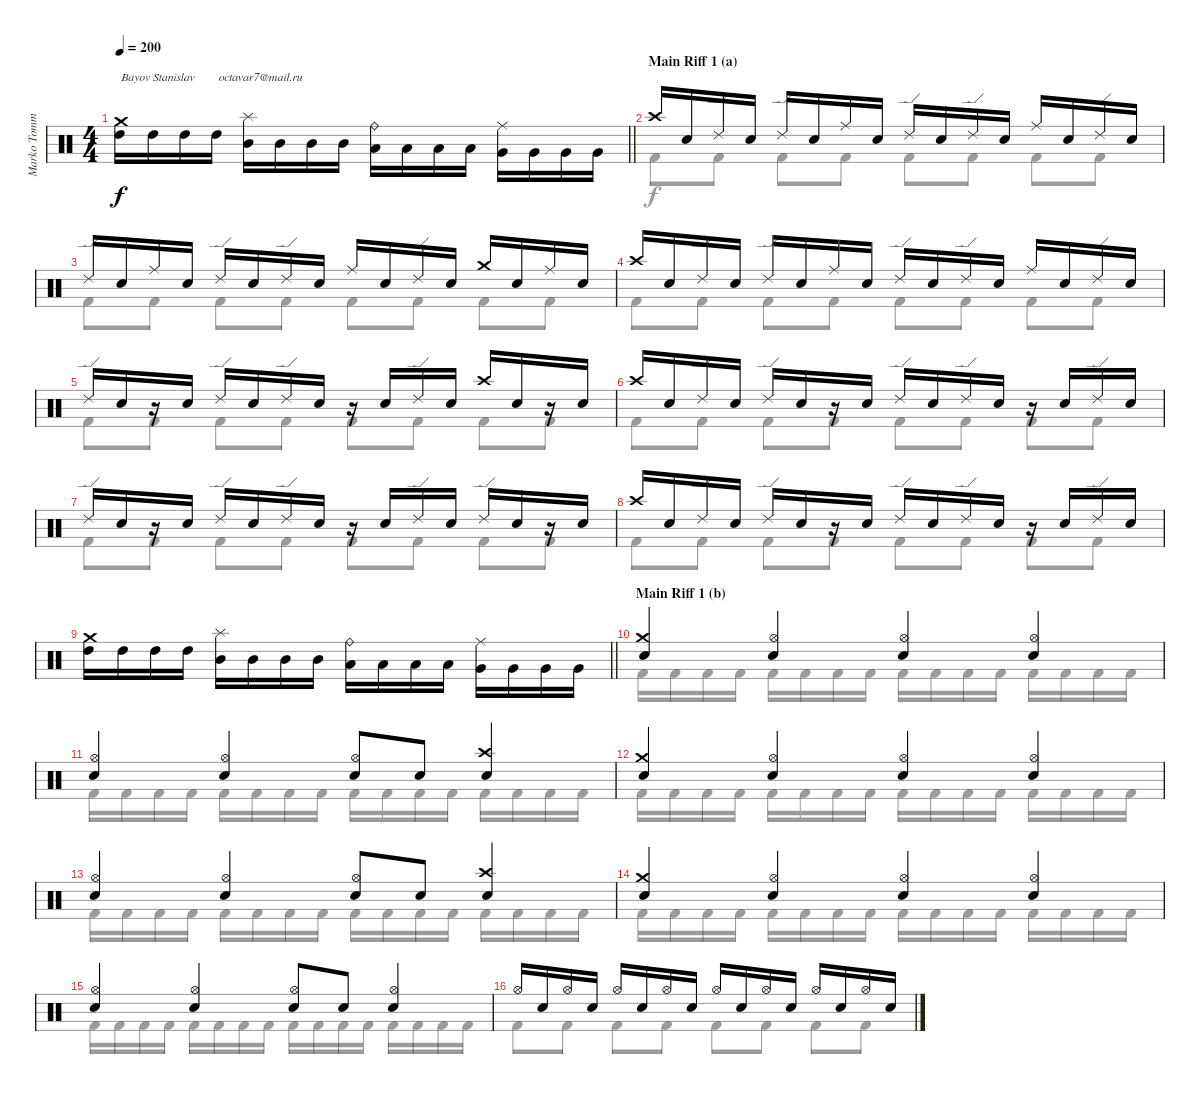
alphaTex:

\track ("Marko Tommila (drums)" "Marko Tomm") {instrument percussion}
\staff {score}
\articulation defaults
\voice
\ts (4 4)
\tempo 200
\clef neutral
\barLineRight lightlight
\ks c
("Crash medium (hit)" "High Tom (hit)").16{txt "Bayov Stanislav        octavar7@mail.ru" dy f} "High Tom (hit)".16 "High Tom (hit)".16 "High Tom (hit)".16 ("Splash (hit)" "Mid Tom (hit)").16 "Mid Tom (hit)".16 "Mid Tom (hit)".16 "Mid Tom (hit)".16 ("Ride (bell)" "Low Tom (hit)").16 "Low Tom (hit)".16 "Low Tom (hit)".16 "Low Tom (hit)".16 ("Ride (middle)" "Very Low Tom (hit)").16 "Very Low Tom (hit)".16 "Very Low Tom (hit)".16 "Very Low Tom (hit)".16 |
\section ("" "Main Riff 1 (a)")
"Crash high (hit)".16 "Electric Snare (hit)".16 "Ride (edge) 2".16 "Electric Snare (hit)".16 "Ride (edge) 2".16 "Electric Snare (hit)".16 "Ride (middle)".16 "Electric Snare (hit)".16 "Ride (edge) 2".16 "Electric Snare (hit)".16 "Ride (edge) 2".16 "Electric Snare (hit)".16 "Ride (middle)".16 "Electric Snare (hit)".16 "Ride (edge) 2".16 "Electric Snare (hit)".16 |
"Ride (edge) 2".16 "Electric Snare (hit)".16 "Ride (middle)".16 "Electric Snare (hit)".16 "Ride (edge) 2".16 "Electric Snare (hit)".16 "Ride (edge) 2".16 "Electric Snare (hit)".16 "Ride (middle)".16 "Electric Snare (hit)".16 "Ride (edge) 2".16 "Electric Snare (hit)".16 "Crash medium (hit)".16 "Electric Snare (hit)".16 "Ride (middle)".16 "Electric Snare (hit)".16 |
"Crash high (hit)".16 "Electric Snare (hit)".16 "Ride (edge) 2".16 "Electric Snare (hit)".16 "Ride (edge) 2".16 "Electric Snare (hit)".16 "Ride (middle)".16 "Electric Snare (hit)".16 "Ride (edge) 2".16 "Electric Snare (hit)".16 "Ride (edge) 2".16 "Electric Snare (hit)".16 "Ride (middle)".16 "Electric Snare (hit)".16 "Ride (edge) 2".16 "Electric Snare (hit)".16 |
"Ride (edge) 2".16 "Electric Snare (hit)".16 r.16 "Electric Snare (hit)".16 "Ride (edge) 2".16 "Electric Snare (hit)".16 "Ride (edge) 2".16 "Electric Snare (hit)".16 r.16 "Electric Snare (hit)".16 "Ride (edge) 2".16 "Electric Snare (hit)".16 "Crash high (hit)".16 "Electric Snare (hit)".16 r.16 "Electric Snare (hit)".16 |
"Crash high (hit)".16 "Electric Snare (hit)".16 "Ride (edge) 2".16 "Electric Snare (hit)".16 "Ride (edge) 2".16 "Electric Snare (hit)".16 r.16 "Electric Snare (hit)".16 "Ride (edge) 2".16 "Electric Snare (hit)".16 "Ride (edge) 2".16 "Electric Snare (hit)".16 r.16 "Electric Snare (hit)".16 "Ride (edge) 2".16 "Electric Snare (hit)".16 |
"Ride (edge) 2".16 "Electric Snare (hit)".16 r.16 "Electric Snare (hit)".16 "Ride (edge) 2".16 "Electric Snare (hit)".16 "Ride (edge) 2".16 "Electric Snare (hit)".16 r.16 "Electric Snare (hit)".16 "Ride (edge) 2".16 "Electric Snare (hit)".16 "Ride (edge) 2".16 "Electric Snare (hit)".16 r.16 "Electric Snare (hit)".16 |
"Crash high (hit)".16 "Electric Snare (hit)".16 "Ride (edge) 2".16 "Electric Snare (hit)".16 "Ride (edge) 2".16 "Electric Snare (hit)".16 r.16 "Electric Snare (hit)".16 "Ride (edge) 2".16 "Electric Snare (hit)".16 "Ride (edge) 2".16 "Electric Snare (hit)".16 r.16 "Electric Snare (hit)".16 "Ride (edge) 2".16 "Electric Snare (hit)".16 |
\barLineRight lightlight
("Crash medium (hit)" "High Tom (hit)").16 "High Tom (hit)".16 "High Tom (hit)".16 "High Tom (hit)".16 ("Splash (hit)" "Mid Tom (hit)").16 "Mid Tom (hit)".16 "Mid Tom (hit)".16 "Mid Tom (hit)".16 ("Ride (bell)" "Low Tom (hit)").16 "Low Tom (hit)".16 "Low Tom (hit)".16 "Low Tom (hit)".16 ("Ride (middle)" "Very Low Tom (hit)").16 "Very Low Tom (hit)".16 "Very Low Tom (hit)".16 "Very Low Tom (hit)".16 |
\section ("" "Main Riff 1 (b)")
("Crash medium (hit)" "Electric Snare (hit)").4 ("Hi-Hat (open)" "Electric Snare (hit)").4 ("Hi-Hat (open)" "Electric Snare (hit)").4 ("Hi-Hat (open)" "Electric Snare (hit)").4 |
("Hi-Hat (open)" "Electric Snare (hit)").4 ("Hi-Hat (open)" "Electric Snare (hit)").4 ("Hi-Hat (open)" "Electric Snare (hit)").8 "Electric Snare (hit)".8 ("Crash high (hit)" "Electric Snare (hit)").4 |
("Crash medium (hit)" "Electric Snare (hit)").4 ("Hi-Hat (open)" "Electric Snare (hit)").4 ("Hi-Hat (open)" "Electric Snare (hit)").4 ("Hi-Hat (open)" "Electric Snare (hit)").4 |
("Hi-Hat (open)" "Electric Snare (hit)").4 ("Hi-Hat (open)" "Electric Snare (hit)").4 ("Hi-Hat (open)" "Electric Snare (hit)").8 "Electric Snare (hit)".8 ("Crash high (hit)" "Electric Snare (hit)").4 |
("Crash medium (hit)" "Electric Snare (hit)").4 ("Hi-Hat (open)" "Electric Snare (hit)").4 ("Hi-Hat (open)" "Electric Snare (hit)").4 ("Hi-Hat (open)" "Electric Snare (hit)").4 |
("Hi-Hat (open)" "Electric Snare (hit)").4 ("Hi-Hat (open)" "Electric Snare (hit)").4 ("Hi-Hat (open)" "Electric Snare (hit)").8 "Electric Snare (hit)".8 ("Hi-Hat (open)" "Electric Snare (hit)").4 |
"Hi-Hat (open)".16 "Electric Snare (hit)".16 "Hi-Hat (open)".16 "Electric Snare (hit)".16 "Hi-Hat (open)".16 "Electric Snare (hit)".16 "Hi-Hat (open)".16 "Electric Snare (hit)".16 "Hi-Hat (open)".16 "Electric Snare (hit)".16 "Hi-Hat (open)".16 "Electric Snare (hit)".16 "Hi-Hat (open)".16 "Electric Snare (hit)".16 "Hi-Hat (open)".16 "Electric Snare (hit)".16
\voice
\clef neutral
\ottava regular
\simile none
\barLineRight lightlight
\ks c
|
"Kick (hit) 2".8 "Kick (hit) 2".8 "Kick (hit) 2".8 "Kick (hit) 2".8 "Kick (hit) 2".8 "Kick (hit) 2".8 "Kick (hit) 2".8 "Kick (hit) 2".8 |
"Kick (hit) 2".8 "Kick (hit) 2".8 "Kick (hit) 2".8 "Kick (hit) 2".8 "Kick (hit) 2".8 "Kick (hit) 2".8 "Kick (hit) 2".8 "Kick (hit) 2".8 |
"Kick (hit) 2".8 "Kick (hit) 2".8 "Kick (hit) 2".8 "Kick (hit) 2".8 "Kick (hit) 2".8 "Kick (hit) 2".8 "Kick (hit) 2".8 "Kick (hit) 2".8 |
"Kick (hit) 2".8 "Kick (hit) 2".8 "Kick (hit) 2".8 "Kick (hit) 2".8 "Kick (hit) 2".8 "Kick (hit) 2".8 "Kick (hit) 2".8 "Kick (hit) 2".8 |
"Kick (hit) 2".8 "Kick (hit) 2".8 "Kick (hit) 2".8 "Kick (hit) 2".8 "Kick (hit) 2".8 "Kick (hit) 2".8 "Kick (hit) 2".8 "Kick (hit) 2".8 |
"Kick (hit) 2".8 "Kick (hit) 2".8 "Kick (hit) 2".8 "Kick (hit) 2".8 "Kick (hit) 2".8 "Kick (hit) 2".8 "Kick (hit) 2".8 "Kick (hit) 2".8 |
"Kick (hit) 2".8 "Kick (hit) 2".8 "Kick (hit) 2".8 "Kick (hit) 2".8 "Kick (hit) 2".8 "Kick (hit) 2".8 "Kick (hit) 2".8 "Kick (hit) 2".8 |
\barLineRight lightlight
|
"Kick (hit) 2".16 "Kick (hit) 2".16 "Kick (hit) 2".16 "Kick (hit) 2".16 "Kick (hit) 2".16 "Kick (hit) 2".16 "Kick (hit) 2".16 "Kick (hit) 2".16 "Kick (hit) 2".16 "Kick (hit) 2".16 "Kick (hit) 2".16 "Kick (hit) 2".16 "Kick (hit) 2".16 "Kick (hit) 2".16 "Kick (hit) 2".16 "Kick (hit) 2".16 |
"Kick (hit) 2".16 "Kick (hit) 2".16 "Kick (hit) 2".16 "Kick (hit) 2".16 "Kick (hit) 2".16 "Kick (hit) 2".16 "Kick (hit) 2".16 "Kick (hit) 2".16 "Kick (hit) 2".16 "Kick (hit) 2".16 "Kick (hit) 2".16 "Kick (hit) 2".16 "Kick (hit) 2".16 "Kick (hit) 2".16 "Kick (hit) 2".16 "Kick (hit) 2".16 |
"Kick (hit) 2".16 "Kick (hit) 2".16 "Kick (hit) 2".16 "Kick (hit) 2".16 "Kick (hit) 2".16 "Kick (hit) 2".16 "Kick (hit) 2".16 "Kick (hit) 2".16 "Kick (hit) 2".16 "Kick (hit) 2".16 "Kick (hit) 2".16 "Kick (hit) 2".16 "Kick (hit) 2".16 "Kick (hit) 2".16 "Kick (hit) 2".16 "Kick (hit) 2".16 |
"Kick (hit) 2".16 "Kick (hit) 2".16 "Kick (hit) 2".16 "Kick (hit) 2".16 "Kick (hit) 2".16 "Kick (hit) 2".16 "Kick (hit) 2".16 "Kick (hit) 2".16 "Kick (hit) 2".16 "Kick (hit) 2".16 "Kick (hit) 2".16 "Kick (hit) 2".16 "Kick (hit) 2".16 "Kick (hit) 2".16 "Kick (hit) 2".16 "Kick (hit) 2".16 |
"Kick (hit) 2".16 "Kick (hit) 2".16 "Kick (hit) 2".16 "Kick (hit) 2".16 "Kick (hit) 2".16 "Kick (hit) 2".16 "Kick (hit) 2".16 "Kick (hit) 2".16 "Kick (hit) 2".16 "Kick (hit) 2".16 "Kick (hit) 2".16 "Kick (hit) 2".16 "Kick (hit) 2".16 "Kick (hit) 2".16 "Kick (hit) 2".16 "Kick (hit) 2".16 |
"Kick (hit) 2".16 "Kick (hit) 2".16 "Kick (hit) 2".16 "Kick (hit) 2".16 "Kick (hit) 2".16 "Kick (hit) 2".16 "Kick (hit) 2".16 "Kick (hit) 2".16 "Kick (hit) 2".16 "Kick (hit) 2".16 "Kick (hit) 2".16 "Kick (hit) 2".16 "Kick (hit) 2".16 "Kick (hit) 2".16 "Kick (hit) 2".16 "Kick (hit) 2".16 |
"Kick (hit) 2".8 "Kick (hit) 2".8 "Kick (hit) 2".8 "Kick (hit) 2".8 "Kick (hit) 2".8 "Kick (hit) 2".8 "Kick (hit) 2".8 "Kick (hit) 2".8
